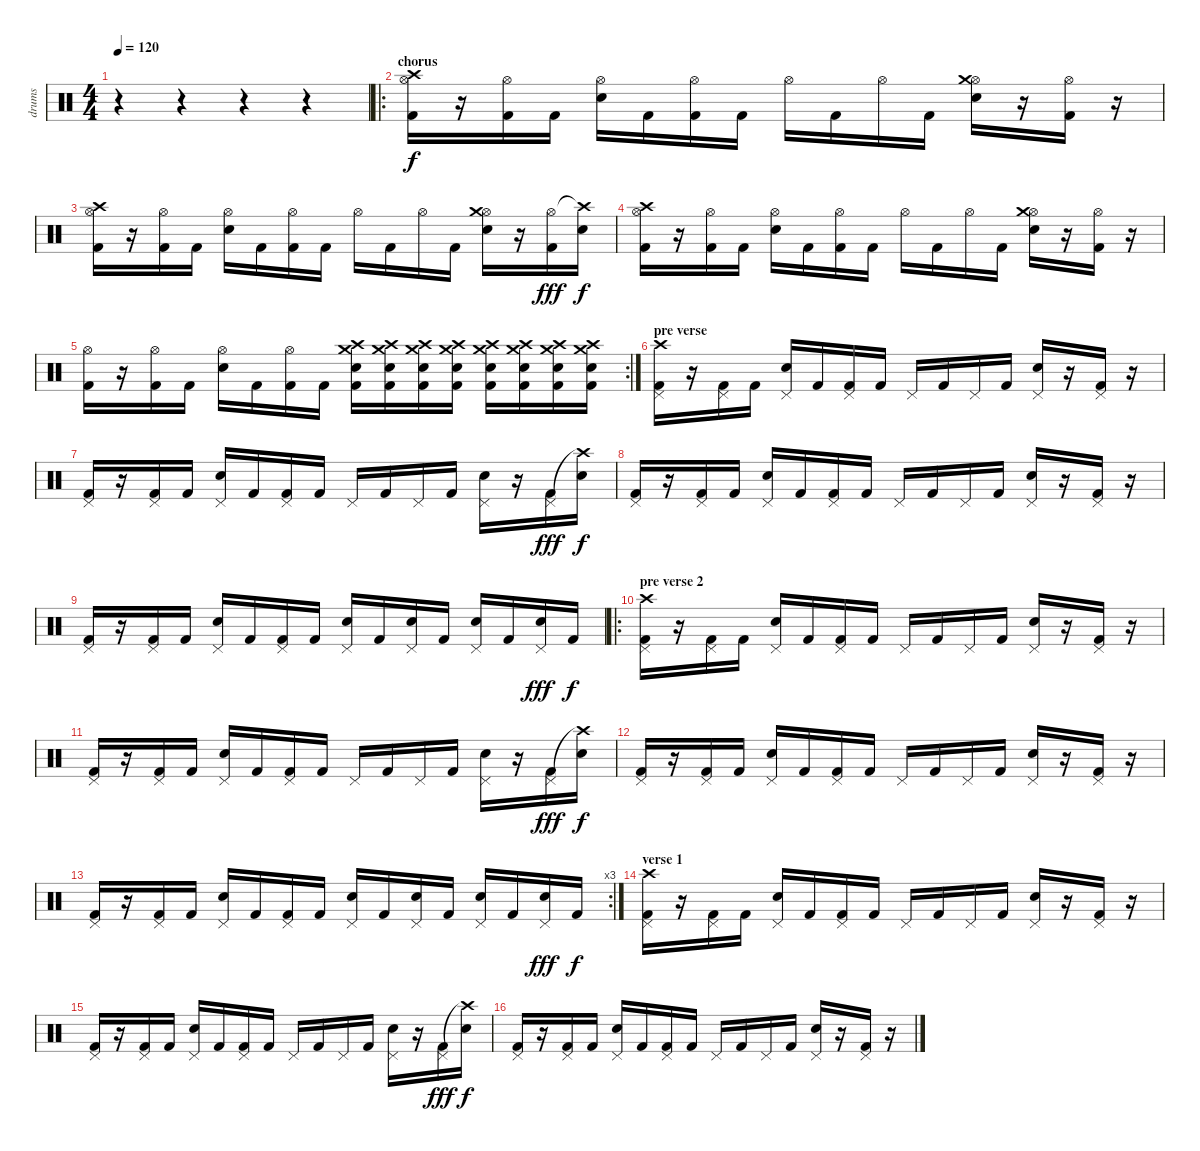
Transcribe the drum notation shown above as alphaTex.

\track ("drums" "drums") {instrument percussion}
\staff {score}
\articulation defaults
\ts (4 4)
\tempo 120
\clef neutral
\ks c
r.4{dy f} r.4 r.4 r.4 |
\ro
\section ("" "chorus")
("Hi-Hat (open)" "Crash high (hit)" "Kick (hit) 2").16 r.16 ("Hi-Hat (open)" "Kick (hit) 2").16 "Kick (hit) 2".16 ("Hi-Hat (open)" "Electric Snare (hit)").16 "Kick (hit) 2".16 ("Hi-Hat (open)" "Kick (hit) 2").16 "Kick (hit) 2".16 "Hi-Hat (open)".16 "Kick (hit) 2".16 "Hi-Hat (open)".16 "Kick (hit) 2".16 ("Hi-Hat (open)" "Crash medium (hit)" "Electric Snare (hit)").16 r.16 ("Hi-Hat (open)" "Kick (hit) 2").16 r.16 |
("Hi-Hat (open)" "Crash high (hit)" "Kick (hit) 2").16 r.16 ("Hi-Hat (open)" "Kick (hit) 2").16 "Kick (hit) 2".16 ("Hi-Hat (open)" "Electric Snare (hit)").16 "Kick (hit) 2".16 ("Hi-Hat (open)" "Kick (hit) 2").16 "Kick (hit) 2".16 "Hi-Hat (open)".16 "Kick (hit) 2".16 "Hi-Hat (open)".16 "Kick (hit) 2".16 ("Hi-Hat (open)" "Crash medium (hit)" "Electric Snare (hit)").16 r.16 ("Hi-Hat (open)" "Kick (hit) 2").16{dy fff} ("Crash high (hit)"{t} "Electric Snare (hit)").16{dy f} |
("Hi-Hat (open)" "Crash high (hit)" "Kick (hit) 2").16 r.16 ("Hi-Hat (open)" "Kick (hit) 2").16 "Kick (hit) 2".16 ("Hi-Hat (open)" "Electric Snare (hit)").16 "Kick (hit) 2".16 ("Hi-Hat (open)" "Kick (hit) 2").16 "Kick (hit) 2".16 "Hi-Hat (open)".16 "Kick (hit) 2".16 "Hi-Hat (open)".16 "Kick (hit) 2".16 ("Hi-Hat (open)" "Crash medium (hit)" "Electric Snare (hit)").16 r.16 ("Hi-Hat (open)" "Kick (hit) 2").16 r.16 |
\rc 2
("Hi-Hat (open)" "Kick (hit) 2").16 r.16 ("Hi-Hat (open)" "Kick (hit) 2").16 "Kick (hit) 2".16 ("Hi-Hat (open)" "Electric Snare (hit)").16 "Kick (hit) 2".16 ("Hi-Hat (open)" "Kick (hit) 2").16 "Kick (hit) 2".16 ("Crash high (hit)" "Crash medium (hit)" "Electric Snare (hit)" "Kick (hit) 2").16 ("Crash high (hit)" "Crash medium (hit)" "Electric Snare (hit)" "Kick (hit) 2").16 ("Crash high (hit)" "Crash medium (hit)" "Electric Snare (hit)" "Kick (hit) 2").16 ("Crash high (hit)" "Crash medium (hit)" "Electric Snare (hit)" "Kick (hit) 2").16 ("Crash high (hit)" "Crash medium (hit)" "Electric Snare (hit)" "Kick (hit) 2").16 ("Crash high (hit)" "Crash medium (hit)" "Electric Snare (hit)" "Kick (hit) 2").16 ("Crash high (hit)" "Crash medium (hit)" "Electric Snare (hit)" "Kick (hit) 2").16 ("Crash high (hit)" "Crash medium (hit)" "Electric Snare (hit)" "Kick (hit) 2").16 |
\section ("" "pre verse")
("Pedal Hi-Hat (hit)" "Crash high (hit)" "Kick (hit) 2").16 r.16 ("Pedal Hi-Hat (hit)" "Kick (hit) 2").16 "Kick (hit) 2".16 ("Pedal Hi-Hat (hit)" "Electric Snare (hit)").16 "Kick (hit) 2".16 ("Pedal Hi-Hat (hit)" "Kick (hit) 2").16 "Kick (hit) 2".16 "Pedal Hi-Hat (hit)".16 "Kick (hit) 2".16 "Pedal Hi-Hat (hit)".16 "Kick (hit) 2".16 ("Pedal Hi-Hat (hit)" "Electric Snare (hit)").16 r.16 ("Pedal Hi-Hat (hit)" "Kick (hit) 2").16 r.16 |
("Pedal Hi-Hat (hit)" "Kick (hit) 2").16 r.16 ("Pedal Hi-Hat (hit)" "Kick (hit) 2").16 "Kick (hit) 2".16 ("Pedal Hi-Hat (hit)" "Electric Snare (hit)").16 "Kick (hit) 2".16 ("Pedal Hi-Hat (hit)" "Kick (hit) 2").16 "Kick (hit) 2".16 "Pedal Hi-Hat (hit)".16 "Kick (hit) 2".16 "Pedal Hi-Hat (hit)".16 "Kick (hit) 2".16 ("Pedal Hi-Hat (hit)" "Electric Snare (hit)").16 r.16 ("Pedal Hi-Hat (hit)" "Kick (hit) 2").16{dy fff} ("Crash high (hit)"{t} "Electric Snare (hit)").16{dy f} |
("Pedal Hi-Hat (hit)" "Kick (hit) 2").16 r.16 ("Pedal Hi-Hat (hit)" "Kick (hit) 2").16 "Kick (hit) 2".16 ("Pedal Hi-Hat (hit)" "Electric Snare (hit)").16 "Kick (hit) 2".16 ("Pedal Hi-Hat (hit)" "Kick (hit) 2").16 "Kick (hit) 2".16 "Pedal Hi-Hat (hit)".16 "Kick (hit) 2".16 "Pedal Hi-Hat (hit)".16 "Kick (hit) 2".16 ("Pedal Hi-Hat (hit)" "Electric Snare (hit)").16 r.16 ("Pedal Hi-Hat (hit)" "Kick (hit) 2").16 r.16 |
("Pedal Hi-Hat (hit)" "Kick (hit) 2").16 r.16 ("Pedal Hi-Hat (hit)" "Kick (hit) 2").16 "Kick (hit) 2".16 ("Pedal Hi-Hat (hit)" "Electric Snare (hit)").16 "Kick (hit) 2".16 ("Pedal Hi-Hat (hit)" "Kick (hit) 2").16 "Kick (hit) 2".16 ("Pedal Hi-Hat (hit)" "Electric Snare (hit)").16 "Kick (hit) 2".16 ("Pedal Hi-Hat (hit)" "Electric Snare (hit)").16 "Kick (hit) 2".16 ("Pedal Hi-Hat (hit)" "Electric Snare (hit)").16 "Kick (hit) 2".16 ("Pedal Hi-Hat (hit)" "Electric Snare (hit)").16{dy fff} "Kick (hit) 2".16{dy f} |
\ro
\section ("" "pre verse 2")
("Pedal Hi-Hat (hit)" "Crash high (hit)" "Kick (hit) 2").16 r.16 ("Pedal Hi-Hat (hit)" "Kick (hit) 2").16 "Kick (hit) 2".16 ("Pedal Hi-Hat (hit)" "Electric Snare (hit)").16 "Kick (hit) 2".16 ("Pedal Hi-Hat (hit)" "Kick (hit) 2").16 "Kick (hit) 2".16 "Pedal Hi-Hat (hit)".16 "Kick (hit) 2".16 "Pedal Hi-Hat (hit)".16 "Kick (hit) 2".16 ("Pedal Hi-Hat (hit)" "Electric Snare (hit)").16 r.16 ("Pedal Hi-Hat (hit)" "Kick (hit) 2").16 r.16 |
("Pedal Hi-Hat (hit)" "Kick (hit) 2").16 r.16 ("Pedal Hi-Hat (hit)" "Kick (hit) 2").16 "Kick (hit) 2".16 ("Pedal Hi-Hat (hit)" "Electric Snare (hit)").16 "Kick (hit) 2".16 ("Pedal Hi-Hat (hit)" "Kick (hit) 2").16 "Kick (hit) 2".16 "Pedal Hi-Hat (hit)".16 "Kick (hit) 2".16 "Pedal Hi-Hat (hit)".16 "Kick (hit) 2".16 ("Pedal Hi-Hat (hit)" "Electric Snare (hit)").16 r.16 ("Pedal Hi-Hat (hit)" "Kick (hit) 2").16{dy fff} ("Crash high (hit)"{t} "Electric Snare (hit)").16{dy f} |
("Pedal Hi-Hat (hit)" "Kick (hit) 2").16 r.16 ("Pedal Hi-Hat (hit)" "Kick (hit) 2").16 "Kick (hit) 2".16 ("Pedal Hi-Hat (hit)" "Electric Snare (hit)").16 "Kick (hit) 2".16 ("Pedal Hi-Hat (hit)" "Kick (hit) 2").16 "Kick (hit) 2".16 "Pedal Hi-Hat (hit)".16 "Kick (hit) 2".16 "Pedal Hi-Hat (hit)".16 "Kick (hit) 2".16 ("Pedal Hi-Hat (hit)" "Electric Snare (hit)").16 r.16 ("Pedal Hi-Hat (hit)" "Kick (hit) 2").16 r.16 |
\rc 3
("Pedal Hi-Hat (hit)" "Kick (hit) 2").16 r.16 ("Pedal Hi-Hat (hit)" "Kick (hit) 2").16 "Kick (hit) 2".16 ("Pedal Hi-Hat (hit)" "Electric Snare (hit)").16 "Kick (hit) 2".16 ("Pedal Hi-Hat (hit)" "Kick (hit) 2").16 "Kick (hit) 2".16 ("Pedal Hi-Hat (hit)" "Electric Snare (hit)").16 "Kick (hit) 2".16 ("Pedal Hi-Hat (hit)" "Electric Snare (hit)").16 "Kick (hit) 2".16 ("Pedal Hi-Hat (hit)" "Electric Snare (hit)").16 "Kick (hit) 2".16 ("Pedal Hi-Hat (hit)" "Electric Snare (hit)").16{dy fff} "Kick (hit) 2".16{dy f} |
\section ("" "verse 1")
("Pedal Hi-Hat (hit)" "Crash high (hit)" "Kick (hit) 2").16 r.16 ("Pedal Hi-Hat (hit)" "Kick (hit) 2").16 "Kick (hit) 2".16 ("Pedal Hi-Hat (hit)" "Electric Snare (hit)").16 "Kick (hit) 2".16 ("Pedal Hi-Hat (hit)" "Kick (hit) 2").16 "Kick (hit) 2".16 "Pedal Hi-Hat (hit)".16 "Kick (hit) 2".16 "Pedal Hi-Hat (hit)".16 "Kick (hit) 2".16 ("Pedal Hi-Hat (hit)" "Electric Snare (hit)").16 r.16 ("Pedal Hi-Hat (hit)" "Kick (hit) 2").16 r.16 |
("Pedal Hi-Hat (hit)" "Kick (hit) 2").16 r.16 ("Pedal Hi-Hat (hit)" "Kick (hit) 2").16 "Kick (hit) 2".16 ("Pedal Hi-Hat (hit)" "Electric Snare (hit)").16 "Kick (hit) 2".16 ("Pedal Hi-Hat (hit)" "Kick (hit) 2").16 "Kick (hit) 2".16 "Pedal Hi-Hat (hit)".16 "Kick (hit) 2".16 "Pedal Hi-Hat (hit)".16 "Kick (hit) 2".16 ("Pedal Hi-Hat (hit)" "Electric Snare (hit)").16 r.16 ("Pedal Hi-Hat (hit)" "Kick (hit) 2").16{dy fff} ("Crash high (hit)"{t} "Electric Snare (hit)").16{dy f} |
("Pedal Hi-Hat (hit)" "Kick (hit) 2").16 r.16 ("Pedal Hi-Hat (hit)" "Kick (hit) 2").16 "Kick (hit) 2".16 ("Pedal Hi-Hat (hit)" "Electric Snare (hit)").16 "Kick (hit) 2".16 ("Pedal Hi-Hat (hit)" "Kick (hit) 2").16 "Kick (hit) 2".16 "Pedal Hi-Hat (hit)".16 "Kick (hit) 2".16 "Pedal Hi-Hat (hit)".16 "Kick (hit) 2".16 ("Pedal Hi-Hat (hit)" "Electric Snare (hit)").16 r.16 ("Pedal Hi-Hat (hit)" "Kick (hit) 2").16 r.16
